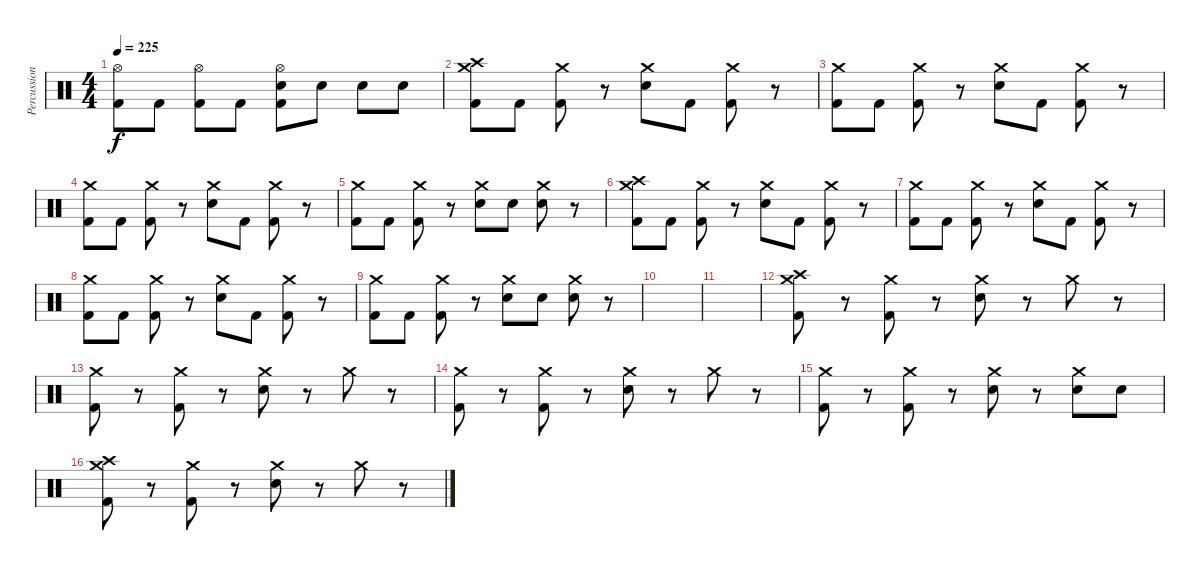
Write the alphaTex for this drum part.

\track ("Percussions" "Percussion") {instrument percussion}
\staff {score}
\articulation defaults
\ts (4 4)
\tempo 225
\clef neutral
\ks c
("Hi-Hat (open)" "Kick (hit) 2").8{dy f} "Kick (hit) 2".8 ("Hi-Hat (open)" "Kick (hit) 2").8 "Kick (hit) 2".8 ("Hi-Hat (open)" "Electric Snare (hit)" "Kick (hit) 2").8 "Electric Snare (hit)".8 "Electric Snare (hit)".8 "Electric Snare (hit)".8 |
("Crash high (hit)" "Crash medium (hit)" "Kick (hit) 2").8 "Kick (hit) 2".8 ("Crash medium (hit)" "Kick (hit) 2").8 r.8 ("Crash medium (hit)" "Electric Snare (hit)").8 "Kick (hit) 2".8 ("Crash medium (hit)" "Kick (hit) 2").8 r.8 |
("Crash medium (hit)" "Kick (hit) 2").8 "Kick (hit) 2".8 ("Crash medium (hit)" "Kick (hit) 2").8 r.8 ("Crash medium (hit)" "Electric Snare (hit)").8 "Kick (hit) 2".8 ("Crash medium (hit)" "Kick (hit) 2").8 r.8 |
("Crash medium (hit)" "Kick (hit) 2").8 "Kick (hit) 2".8 ("Crash medium (hit)" "Kick (hit) 2").8 r.8 ("Crash medium (hit)" "Electric Snare (hit)").8 "Kick (hit) 2".8 ("Crash medium (hit)" "Kick (hit) 2").8 r.8 |
("Crash medium (hit)" "Kick (hit) 2").8 "Kick (hit) 2".8 ("Crash medium (hit)" "Kick (hit) 2").8 r.8 ("Crash medium (hit)" "Electric Snare (hit)").8 "Electric Snare (hit)".8 ("Crash medium (hit)" "Electric Snare (hit)").8 r.8 |
("Crash high (hit)" "Crash medium (hit)" "Kick (hit) 2").8 "Kick (hit) 2".8 ("Crash medium (hit)" "Kick (hit) 2").8 r.8 ("Crash medium (hit)" "Electric Snare (hit)").8 "Kick (hit) 2".8 ("Crash medium (hit)" "Kick (hit) 2").8 r.8 |
("Crash medium (hit)" "Kick (hit) 2").8 "Kick (hit) 2".8 ("Crash medium (hit)" "Kick (hit) 2").8 r.8 ("Crash medium (hit)" "Electric Snare (hit)").8 "Kick (hit) 2".8 ("Crash medium (hit)" "Kick (hit) 2").8 r.8 |
("Crash medium (hit)" "Kick (hit) 2").8 "Kick (hit) 2".8 ("Crash medium (hit)" "Kick (hit) 2").8 r.8 ("Crash medium (hit)" "Electric Snare (hit)").8 "Kick (hit) 2".8 ("Crash medium (hit)" "Kick (hit) 2").8 r.8 |
("Crash medium (hit)" "Kick (hit) 2").8 "Kick (hit) 2".8 ("Crash medium (hit)" "Kick (hit) 2").8 r.8 ("Crash medium (hit)" "Electric Snare (hit)").8 "Electric Snare (hit)".8 ("Crash medium (hit)" "Electric Snare (hit)").8 r.8 |
|
|
("Crash medium (hit)" "Crash high (hit)" "Kick (hit) 2").8 r.8 ("Crash medium (hit)" "Kick (hit) 2").8 r.8 ("Crash medium (hit)" "Electric Snare (hit)").8 r.8 "Crash medium (hit)".8 r.8 |
("Crash medium (hit)" "Kick (hit) 2").8 r.8 ("Crash medium (hit)" "Kick (hit) 2").8 r.8 ("Crash medium (hit)" "Electric Snare (hit)").8 r.8 "Crash medium (hit)".8 r.8 |
("Crash medium (hit)" "Kick (hit) 2").8 r.8 ("Crash medium (hit)" "Kick (hit) 2").8 r.8 ("Crash medium (hit)" "Electric Snare (hit)").8 r.8 "Crash medium (hit)".8 r.8 |
("Crash medium (hit)" "Kick (hit) 2").8 r.8 ("Crash medium (hit)" "Kick (hit) 2").8 r.8 ("Crash medium (hit)" "Electric Snare (hit)").8 r.8 ("Crash medium (hit)" "Electric Snare (hit)").8 "Electric Snare (hit)".8 |
("Crash medium (hit)" "Crash high (hit)" "Kick (hit) 2").8 r.8 ("Crash medium (hit)" "Kick (hit) 2").8 r.8 ("Crash medium (hit)" "Electric Snare (hit)").8 r.8 "Crash medium (hit)".8 r.8
